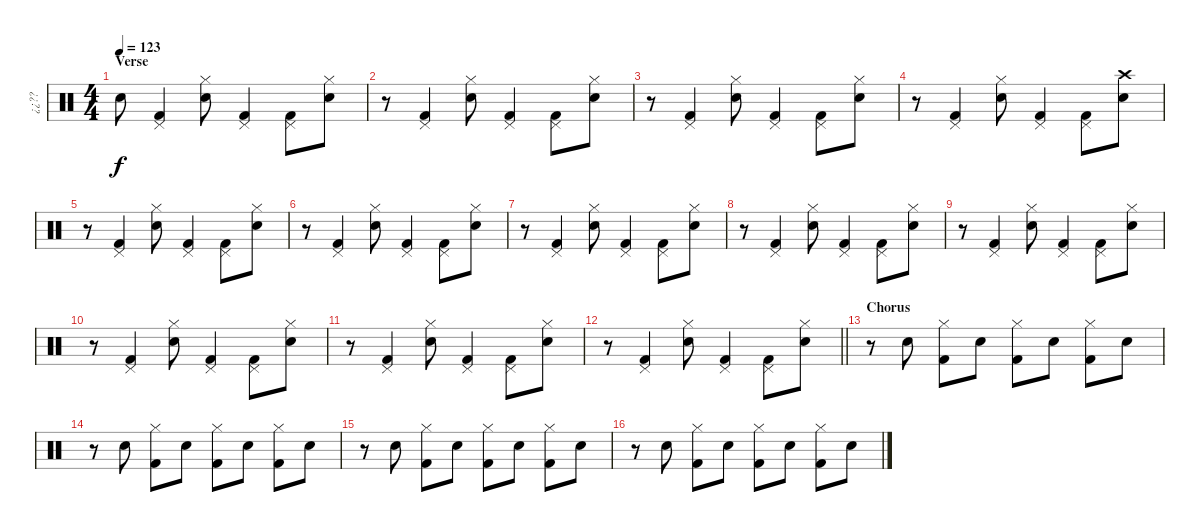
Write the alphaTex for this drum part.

\track ("¿¿??" "¿¿??") {instrument percussion}
\staff {score}
\articulation defaults
\ts (4 4)
\section ("" "Verse")
\tempo 123
\clef neutral
\ks c "Snare (hit)"{t}.8{dy f}
("Pedal Hi-Hat (hit)" "Kick (hit) 2").4 ("Hi-Hat (closed)" "Snare (hit) 2").8 ("Pedal Hi-Hat (hit)" "Kick (hit) 2").4 ("Pedal Hi-Hat (hit)" "Kick (hit) 2").8 ("Hi-Hat (closed)" "Snare (hit) 2").8 |
r.8 ("Pedal Hi-Hat (hit)" "Kick (hit) 2").4 ("Hi-Hat (closed)" "Snare (hit) 2").8 ("Pedal Hi-Hat (hit)" "Kick (hit) 2").4 ("Pedal Hi-Hat (hit)" "Kick (hit) 2").8 ("Hi-Hat (closed)" "Snare (hit) 2").8 |
r.8 ("Pedal Hi-Hat (hit)" "Kick (hit) 2").4 ("Hi-Hat (closed)" "Snare (hit) 2").8 ("Pedal Hi-Hat (hit)" "Kick (hit) 2").4 ("Pedal Hi-Hat (hit)" "Kick (hit) 2").8 ("Hi-Hat (closed)" "Snare (hit) 2").8 |
r.8 ("Pedal Hi-Hat (hit)" "Kick (hit) 2").4 ("Hi-Hat (closed)" "Snare (hit) 2").8 ("Pedal Hi-Hat (hit)" "Kick (hit) 2").4 ("Pedal Hi-Hat (hit)" "Kick (hit) 2").8 ("Crash high (hit)" "Snare (hit) 2").8 |
r.8 ("Pedal Hi-Hat (hit)" "Kick (hit) 2").4 ("Hi-Hat (closed)" "Snare (hit) 2").8 ("Pedal Hi-Hat (hit)" "Kick (hit) 2").4 ("Pedal Hi-Hat (hit)" "Kick (hit) 2").8 ("Hi-Hat (closed)" "Snare (hit) 2").8 |
r.8 ("Pedal Hi-Hat (hit)" "Kick (hit) 2").4 ("Hi-Hat (closed)" "Snare (hit) 2").8 ("Pedal Hi-Hat (hit)" "Kick (hit) 2").4 ("Pedal Hi-Hat (hit)" "Kick (hit) 2").8 ("Hi-Hat (closed)" "Snare (hit) 2").8 |
r.8 ("Pedal Hi-Hat (hit)" "Kick (hit) 2").4 ("Hi-Hat (closed)" "Snare (hit) 2").8 ("Pedal Hi-Hat (hit)" "Kick (hit) 2").4 ("Pedal Hi-Hat (hit)" "Kick (hit) 2").8 ("Hi-Hat (closed)" "Snare (hit) 2").8 |
r.8 ("Pedal Hi-Hat (hit)" "Kick (hit) 2").4 ("Hi-Hat (closed)" "Snare (hit) 2").8 ("Pedal Hi-Hat (hit)" "Kick (hit) 2").4 ("Pedal Hi-Hat (hit)" "Kick (hit) 2").8 ("Hi-Hat (closed)" "Snare (hit) 2").8 |
r.8 ("Pedal Hi-Hat (hit)" "Kick (hit) 2").4 ("Hi-Hat (closed)" "Snare (hit) 2").8 ("Pedal Hi-Hat (hit)" "Kick (hit) 2").4 ("Pedal Hi-Hat (hit)" "Kick (hit) 2").8 ("Hi-Hat (closed)" "Snare (hit) 2").8 |
r.8 ("Pedal Hi-Hat (hit)" "Kick (hit) 2").4 ("Hi-Hat (closed)" "Snare (hit) 2").8 ("Pedal Hi-Hat (hit)" "Kick (hit) 2").4 ("Pedal Hi-Hat (hit)" "Kick (hit) 2").8 ("Hi-Hat (closed)" "Snare (hit) 2").8 |
r.8 ("Pedal Hi-Hat (hit)" "Kick (hit) 2").4 ("Hi-Hat (closed)" "Snare (hit) 2").8 ("Pedal Hi-Hat (hit)" "Kick (hit) 2").4 ("Pedal Hi-Hat (hit)" "Kick (hit) 2").8 ("Hi-Hat (closed)" "Snare (hit) 2").8 |
\barLineRight lightlight
r.8 ("Pedal Hi-Hat (hit)" "Kick (hit) 2").4 ("Hi-Hat (closed)" "Snare (hit) 2").8 ("Pedal Hi-Hat (hit)" "Kick (hit) 2").4 ("Pedal Hi-Hat (hit)" "Kick (hit) 2").8 ("Hi-Hat (closed)" "Snare (hit) 2").8 |
\section ("" "Chorus")
r.8 "Snare (hit) 2".8 ("Hi-Hat (closed)" "Kick (hit) 2").8 "Snare (hit) 2".8 ("Hi-Hat (closed)" "Kick (hit) 2").8 "Snare (hit) 2".8 ("Hi-Hat (closed)" "Kick (hit) 2").8 "Snare (hit) 2".8 |
r.8 "Snare (hit) 2".8 ("Hi-Hat (closed)" "Kick (hit) 2").8 "Snare (hit) 2".8 ("Hi-Hat (closed)" "Kick (hit) 2").8 "Snare (hit) 2".8 ("Hi-Hat (closed)" "Kick (hit) 2").8 "Snare (hit) 2".8 |
r.8 "Snare (hit) 2".8 ("Hi-Hat (closed)" "Kick (hit) 2").8 "Snare (hit) 2".8 ("Hi-Hat (closed)" "Kick (hit) 2").8 "Snare (hit) 2".8 ("Hi-Hat (closed)" "Kick (hit) 2").8 "Snare (hit) 2".8 |
r.8 "Snare (hit) 2".8 ("Hi-Hat (closed)" "Kick (hit) 2").8 "Snare (hit) 2".8 ("Hi-Hat (closed)" "Kick (hit) 2").8 "Snare (hit) 2".8 ("Hi-Hat (closed)" "Kick (hit) 2").8 "Snare (hit) 2".8
